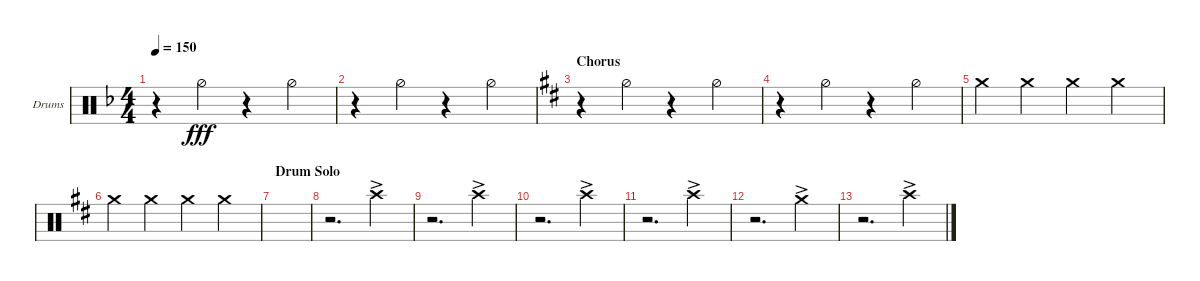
\defaultSystemsLayout 4
\bracketExtendMode groupsimilarinstruments
\firstSystemTrackNameOrientation horizontal
\otherSystemsTrackNameOrientation horizontal
\track ("Drumkit" "Drums") {instrument percussion}
\staff {score}
\articulation defaults
\ts (4 4)
\tempo 150
\clef neutral
\ks f
r.4{dy fff} "Hi-Hat (half)".4 r.4 "Hi-Hat (half)".4 |
r.4 "Hi-Hat (half)".4 r.4 "Hi-Hat (half)".4 |
\section ("" "Chorus")
\ks d
r.4 "Hi-Hat (half)".4 r.4 "Hi-Hat (half)".4 |
r.4 "Hi-Hat (half)".4 r.4 "Hi-Hat (half)".4 |
"Crash medium (hit)".4 "Crash medium (hit)".4 "Crash medium (hit)".4 "Crash medium (hit)".4 |
"Crash medium (hit)".4 "Crash medium (hit)".4 "Crash medium (hit)".4 "Crash medium (hit)".4 |
\section ("" "Drum Solo")
|
r.2{d} "Crash high (hit)"{ac}.4 |
r.2{d} "Crash high (hit)"{ac}.4 |
r.2{d} "Crash high (hit)"{ac}.4 |
r.2{d} "Crash high (hit)"{ac}.4 |
r.2{d} "Crash medium (hit)"{ac}.4 |
r.2{d} "Crash high (hit)"{ac}.4
